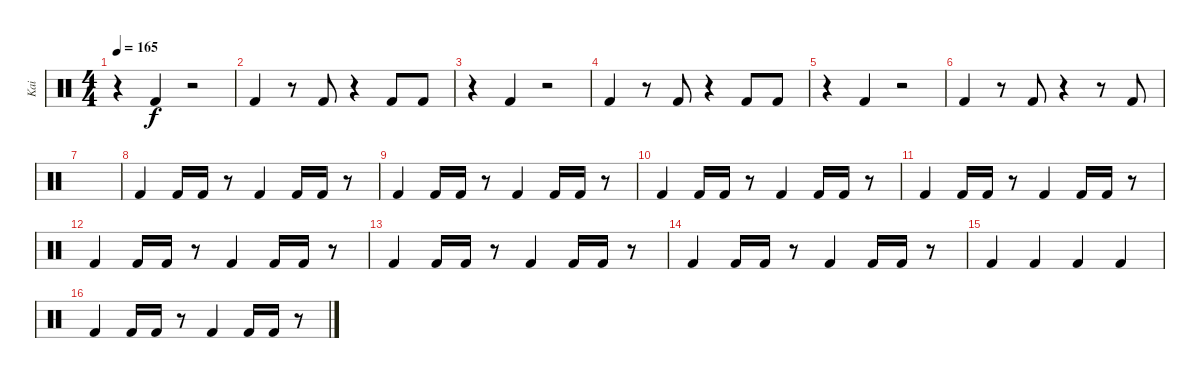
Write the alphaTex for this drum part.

\track ("Kai" "Kai") {instrument percussion}
\staff {score}
\articulation defaults
\ts (4 4)
\tempo 165
\clef neutral
\ks c
r.4{dy f} "Kick (hit) 2".4 r.2 |
"Kick (hit) 2".4 r.8 "Kick (hit) 2".8 r.4 "Kick (hit) 2".8 "Kick (hit) 2".8 |
r.4 "Kick (hit) 2".4 r.2 |
"Kick (hit) 2".4 r.8 "Kick (hit) 2".8 r.4 "Kick (hit) 2".8 "Kick (hit) 2".8 |
r.4 "Kick (hit) 2".4 r.2 |
"Kick (hit) 2".4 r.8 "Kick (hit) 2".8 r.4 r.8 "Kick (hit) 2".8 |
|
"Kick (hit) 2".4 "Kick (hit) 2".16 "Kick (hit) 2".16 r.8 "Kick (hit) 2".4 "Kick (hit) 2".16 "Kick (hit) 2".16 r.8 |
"Kick (hit) 2".4 "Kick (hit) 2".16 "Kick (hit) 2".16 r.8 "Kick (hit) 2".4 "Kick (hit) 2".16 "Kick (hit) 2".16 r.8 |
"Kick (hit) 2".4 "Kick (hit) 2".16 "Kick (hit) 2".16 r.8 "Kick (hit) 2".4 "Kick (hit) 2".16 "Kick (hit) 2".16 r.8 |
"Kick (hit) 2".4 "Kick (hit) 2".16 "Kick (hit) 2".16 r.8 "Kick (hit) 2".4 "Kick (hit) 2".16 "Kick (hit) 2".16 r.8 |
"Kick (hit) 2".4 "Kick (hit) 2".16 "Kick (hit) 2".16 r.8 "Kick (hit) 2".4 "Kick (hit) 2".16 "Kick (hit) 2".16 r.8 |
"Kick (hit) 2".4 "Kick (hit) 2".16 "Kick (hit) 2".16 r.8 "Kick (hit) 2".4 "Kick (hit) 2".16 "Kick (hit) 2".16 r.8 |
"Kick (hit) 2".4 "Kick (hit) 2".16 "Kick (hit) 2".16 r.8 "Kick (hit) 2".4 "Kick (hit) 2".16 "Kick (hit) 2".16 r.8 |
"Kick (hit) 2".4 "Kick (hit) 2".4 "Kick (hit) 2".4 "Kick (hit) 2".4 |
"Kick (hit) 2".4 "Kick (hit) 2".16 "Kick (hit) 2".16 r.8 "Kick (hit) 2".4 "Kick (hit) 2".16 "Kick (hit) 2".16 r.8
